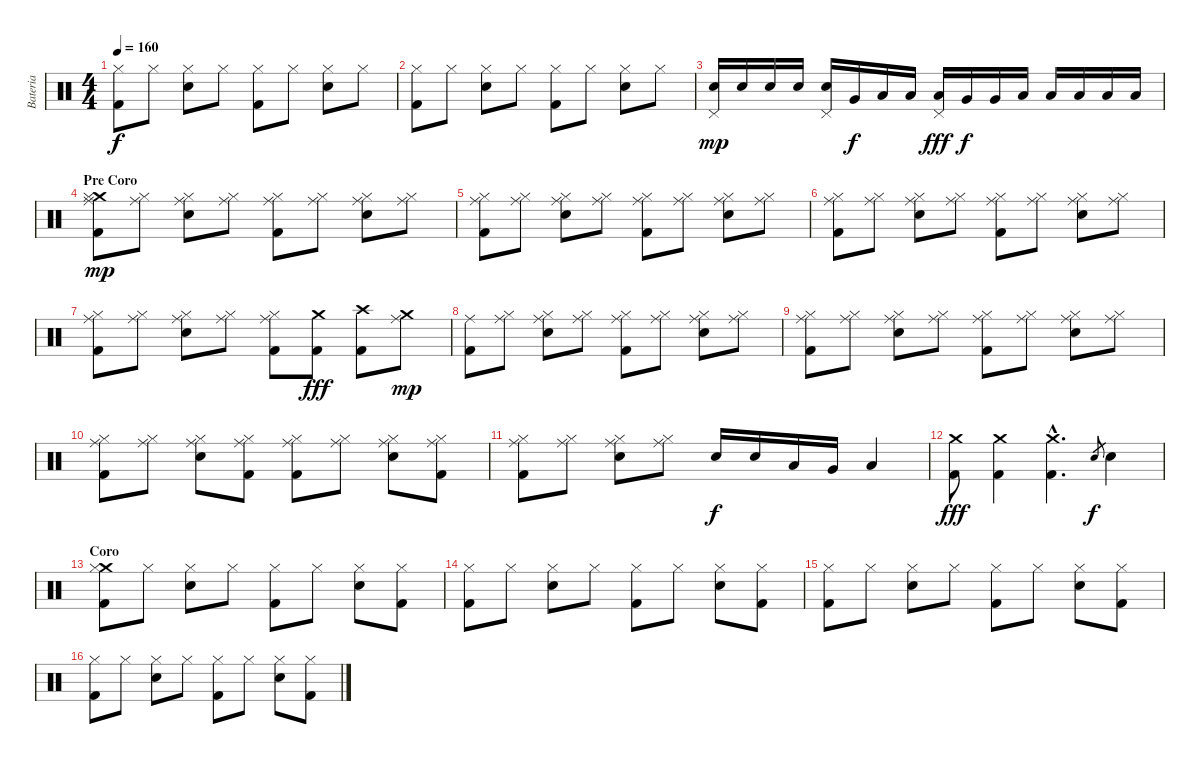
\track ("Bateria" "Bateria") {instrument percussion}
\staff {score}
\articulation defaults
\ts (4 4)
\tempo 160
\clef neutral
\ks c
("Hi-Hat (closed)" "Kick (hit) 2").8{dy f} "Hi-Hat (closed)".8 ("Hi-Hat (closed)" "Electric Snare (hit)").8 "Hi-Hat (closed)".8 ("Hi-Hat (closed)" "Kick (hit) 2").8 "Hi-Hat (closed)".8 ("Hi-Hat (closed)" "Electric Snare (hit)").8 "Hi-Hat (closed)".8 |
("Hi-Hat (closed)" "Kick (hit) 2").8 "Hi-Hat (closed)".8 ("Hi-Hat (closed)" "Electric Snare (hit)").8 "Hi-Hat (closed)".8 ("Hi-Hat (closed)" "Kick (hit) 2").8 "Hi-Hat (closed)".8 ("Hi-Hat (closed)" "Electric Snare (hit)").8 "Hi-Hat (closed)".8 |
("Pedal Hi-Hat (hit)" "Electric Snare (hit)").16{dy mp} "Electric Snare (hit)".16 "Electric Snare (hit)".16 "Electric Snare (hit)".16 ("Pedal Hi-Hat (hit)" "Electric Snare (hit)").16 "Very Low Tom (hit)".16{dy f} "Low Tom (hit)".16 "Low Tom (hit)".16 ("Pedal Hi-Hat (hit)" "Low Tom (hit)").16{dy fff} "Very Low Tom (hit)".16{dy f} "Very Low Tom (hit)".16 "Low Floor Tom (hit)".16 "Low Floor Tom (hit)".16 "Low Floor Tom (hit)".16 "Low Floor Tom (hit)".16 "Low Floor Tom (hit)".16 |
\section ("" "Pre Coro")
("Crash medium (hit)" "Hi-Hat (closed)" "Kick (hit) 2" "Ride (middle)").8{dy mp} ("Hi-Hat (closed)" "Ride (middle)").8 ("Hi-Hat (closed)" "Electric Snare (hit)" "Ride (middle)").8 ("Hi-Hat (closed)" "Ride (middle)").8 ("Hi-Hat (closed)" "Kick (hit) 2" "Ride (middle)").8 ("Hi-Hat (closed)" "Ride (middle)").8 ("Hi-Hat (closed)" "Electric Snare (hit)" "Ride (middle)").8 ("Hi-Hat (closed)" "Ride (middle)").8 |
("Hi-Hat (closed)" "Kick (hit) 2" "Ride (middle)").8 ("Hi-Hat (closed)" "Ride (middle)").8 ("Hi-Hat (closed)" "Electric Snare (hit)" "Ride (middle)").8 ("Hi-Hat (closed)" "Ride (middle)").8 ("Hi-Hat (closed)" "Kick (hit) 2" "Ride (middle)").8 ("Hi-Hat (closed)" "Ride (middle)").8 ("Hi-Hat (closed)" "Electric Snare (hit)" "Ride (middle)").8 ("Hi-Hat (closed)" "Ride (middle)").8 |
("Hi-Hat (closed)" "Kick (hit) 2" "Ride (middle)").8 ("Hi-Hat (closed)" "Ride (middle)").8 ("Hi-Hat (closed)" "Electric Snare (hit)" "Ride (middle)").8 ("Hi-Hat (closed)" "Ride (middle)").8 ("Hi-Hat (closed)" "Kick (hit) 2" "Ride (middle)").8 ("Hi-Hat (closed)" "Ride (middle)").8 ("Hi-Hat (closed)" "Electric Snare (hit)" "Ride (middle)").8 ("Hi-Hat (closed)" "Ride (middle)").8 |
("Hi-Hat (closed)" "Kick (hit) 2" "Ride (middle)").8 ("Hi-Hat (closed)" "Ride (middle)").8 ("Hi-Hat (closed)" "Electric Snare (hit)" "Ride (middle)").8 ("Hi-Hat (closed)" "Ride (middle)").8 ("Hi-Hat (closed)" "Kick (hit) 2" "Ride (middle)").8 ("Crash medium (hit)" "Kick (hit) 2").8{dy fff} ("Crash high (hit)" "Kick (hit) 2").8 ("Crash medium (hit)" "Ride (middle)").8{dy mp} |
("Kick (hit) 2" "Ride (middle)").8 ("Hi-Hat (closed)" "Ride (middle)").8 ("Hi-Hat (closed)" "Electric Snare (hit)" "Ride (middle)").8 ("Hi-Hat (closed)" "Ride (middle)").8 ("Hi-Hat (closed)" "Kick (hit) 2" "Ride (middle)").8 ("Hi-Hat (closed)" "Ride (middle)").8 ("Hi-Hat (closed)" "Electric Snare (hit)" "Ride (middle)").8 ("Hi-Hat (closed)" "Ride (middle)").8 |
("Hi-Hat (closed)" "Kick (hit) 2" "Ride (middle)").8 ("Hi-Hat (closed)" "Ride (middle)").8 ("Hi-Hat (closed)" "Electric Snare (hit)" "Ride (middle)").8 ("Hi-Hat (closed)" "Ride (middle)").8 ("Hi-Hat (closed)" "Kick (hit) 2" "Ride (middle)").8 ("Hi-Hat (closed)" "Ride (middle)").8 ("Hi-Hat (closed)" "Electric Snare (hit)" "Ride (middle)").8 ("Hi-Hat (closed)" "Ride (middle)").8 |
("Hi-Hat (closed)" "Kick (hit) 2" "Ride (middle)").8 ("Hi-Hat (closed)" "Ride (middle)").8 ("Hi-Hat (closed)" "Electric Snare (hit)" "Ride (middle)").8 ("Hi-Hat (closed)" "Kick (hit) 2" "Ride (middle)").8 ("Hi-Hat (closed)" "Kick (hit) 2" "Ride (middle)").8 ("Hi-Hat (closed)" "Ride (middle)").8 ("Hi-Hat (closed)" "Electric Snare (hit)" "Ride (middle)").8 ("Hi-Hat (closed)" "Kick (hit) 2" "Ride (middle)").8 |
("Hi-Hat (closed)" "Kick (hit) 2" "Ride (middle)").8 ("Hi-Hat (closed)" "Ride (middle)").8 ("Hi-Hat (closed)" "Electric Snare (hit)" "Ride (middle)").8 ("Hi-Hat (closed)" "Ride (middle)").8 "Electric Snare (hit)".16{dy f} "Electric Snare (hit)".16 "Low Tom (hit)".16 "Very Low Tom (hit)".16 "Low Tom (hit)".4 |
("Crash medium (hit)" "Kick (hit) 2").8{dy fff} ("Crash medium (hit)" "Kick (hit) 2").4 ("Crash medium (hit)"{hac} "Kick (hit) 2"{hac}).4{d} "Electric Snare (hit)".8{gr dy f} "Electric Snare (hit)".4 |
\section ("" "Coro")
("Crash medium (hit)" "Hi-Hat (closed)" "Kick (hit) 2").8 "Hi-Hat (closed)".8 ("Hi-Hat (closed)" "Electric Snare (hit)").8 "Hi-Hat (closed)".8 ("Hi-Hat (closed)" "Kick (hit) 2").8 "Hi-Hat (closed)".8 ("Hi-Hat (closed)" "Electric Snare (hit)").8 ("Hi-Hat (closed)" "Kick (hit) 2").8 |
("Hi-Hat (closed)" "Kick (hit) 2").8 "Hi-Hat (closed)".8 ("Hi-Hat (closed)" "Electric Snare (hit)").8 "Hi-Hat (closed)".8 ("Hi-Hat (closed)" "Kick (hit) 2").8 "Hi-Hat (closed)".8 ("Hi-Hat (closed)" "Electric Snare (hit)").8 ("Hi-Hat (closed)" "Kick (hit) 2").8 |
("Hi-Hat (closed)" "Kick (hit) 2").8 "Hi-Hat (closed)".8 ("Hi-Hat (closed)" "Electric Snare (hit)").8 "Hi-Hat (closed)".8 ("Hi-Hat (closed)" "Kick (hit) 2").8 "Hi-Hat (closed)".8 ("Hi-Hat (closed)" "Electric Snare (hit)").8 ("Hi-Hat (closed)" "Kick (hit) 2").8 |
("Hi-Hat (closed)" "Kick (hit) 2").8 "Hi-Hat (closed)".8 ("Hi-Hat (closed)" "Electric Snare (hit)").8 "Hi-Hat (closed)".8 ("Hi-Hat (closed)" "Kick (hit) 2").8 "Hi-Hat (closed)".8 ("Hi-Hat (closed)" "Electric Snare (hit)").8 ("Hi-Hat (closed)" "Kick (hit) 2").8
